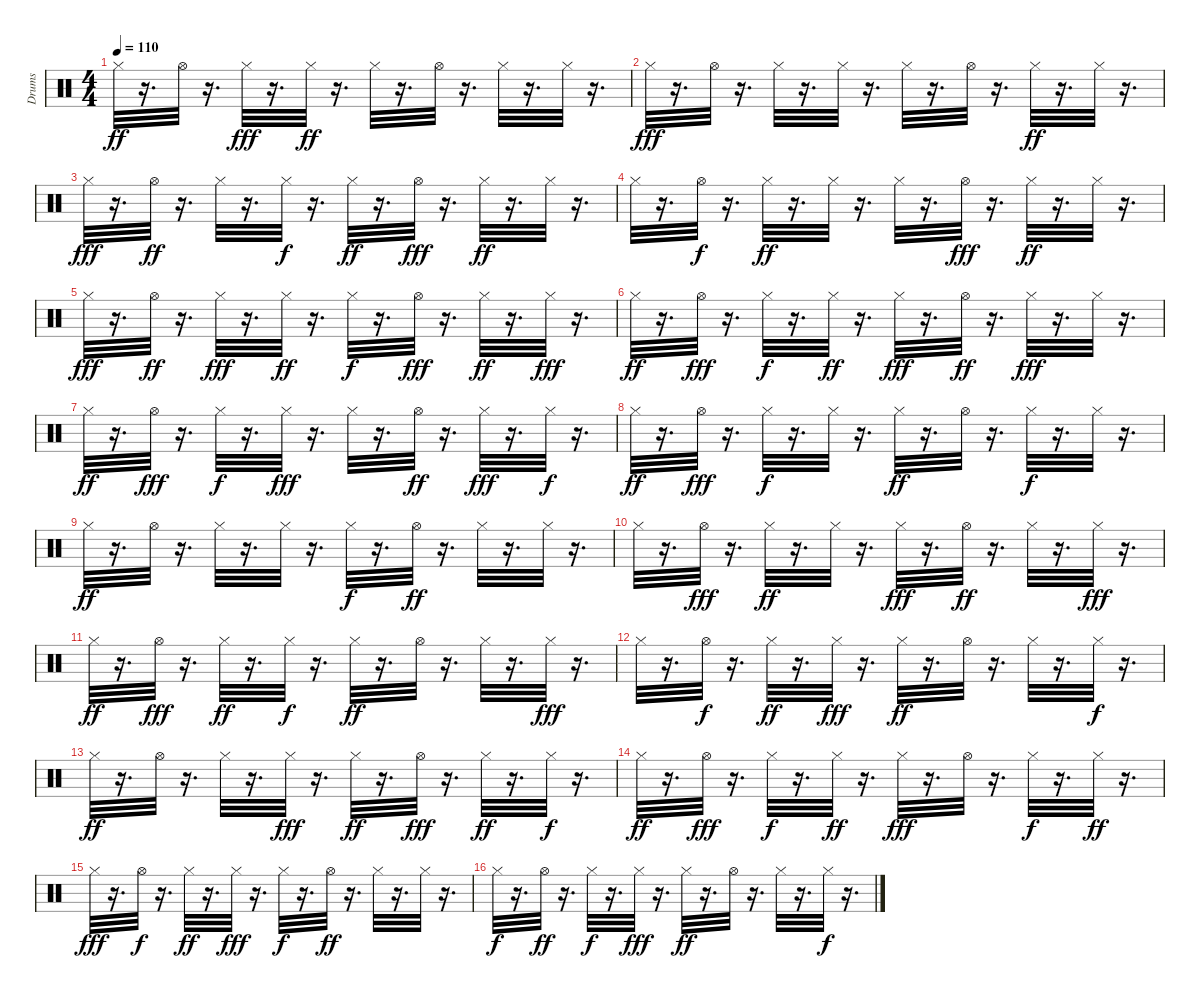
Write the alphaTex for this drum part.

\track ("Drums" "Drums") {instrument percussion}
\staff {score}
\articulation defaults
\ts (4 4)
\tempo 110
\clef neutral
\ks c "Hi-Hat (closed)".32{dy ff}
r.16{d} "Hi-Hat (open)".32 r.16{d} "Hi-Hat (closed)".32{dy fff} r.16{d} "Hi-Hat (closed)".32{dy ff} r.16{d} "Hi-Hat (closed)".32 r.16{d} "Hi-Hat (open)".32 r.16{d} "Hi-Hat (closed)".32 r.16{d} "Hi-Hat (closed)".32 r.16{d} |
"Hi-Hat (closed)".32{dy fff} r.16{d} "Hi-Hat (open)".32 r.16{d} "Hi-Hat (closed)".32 r.16{d} "Hi-Hat (closed)".32 r.16{d} "Hi-Hat (closed)".32 r.16{d} "Hi-Hat (open)".32 r.16{d} "Hi-Hat (closed)".32{dy ff} r.16{d} "Hi-Hat (closed)".32 r.16{d} |
"Hi-Hat (closed)".32{dy fff} r.16{d} "Hi-Hat (open)".32{dy ff} r.16{d} "Hi-Hat (closed)".32 r.16{d} "Hi-Hat (closed)".32{dy f} r.16{d} "Hi-Hat (closed)".32{dy ff} r.16{d} "Hi-Hat (open)".32{dy fff} r.16{d} "Hi-Hat (closed)".32{dy ff} r.16{d} "Hi-Hat (closed)".32 r.16{d} |
"Hi-Hat (closed)".32 r.16{d} "Hi-Hat (open)".32{dy f} r.16{d} "Hi-Hat (closed)".32{dy ff} r.16{d} "Hi-Hat (closed)".32 r.16{d} "Hi-Hat (closed)".32 r.16{d} "Hi-Hat (open)".32{dy fff} r.16{d} "Hi-Hat (closed)".32{dy ff} r.16{d} "Hi-Hat (closed)".32 r.16{d} |
"Hi-Hat (closed)".32{dy fff} r.16{d} "Hi-Hat (open)".32{dy ff} r.16{d} "Hi-Hat (closed)".32{dy fff} r.16{d} "Hi-Hat (closed)".32{dy ff} r.16{d} "Hi-Hat (closed)".32{dy f} r.16{d} "Hi-Hat (open)".32{dy fff} r.16{d} "Hi-Hat (closed)".32{dy ff} r.16{d} "Hi-Hat (closed)".32{dy fff} r.16{d} |
"Hi-Hat (closed)".32{dy ff} r.16{d} "Hi-Hat (open)".32{dy fff} r.16{d} "Hi-Hat (closed)".32{dy f} r.16{d} "Hi-Hat (closed)".32{dy ff} r.16{d} "Hi-Hat (closed)".32{dy fff} r.16{d} "Hi-Hat (open)".32{dy ff} r.16{d} "Hi-Hat (closed)".32{dy fff} r.16{d} "Hi-Hat (closed)".32 r.16{d} |
"Hi-Hat (closed)".32{dy ff} r.16{d} "Hi-Hat (open)".32{dy fff} r.16{d} "Hi-Hat (closed)".32{dy f} r.16{d} "Hi-Hat (closed)".32{dy fff} r.16{d} "Hi-Hat (closed)".32 r.16{d} "Hi-Hat (open)".32{dy ff} r.16{d} "Hi-Hat (closed)".32{dy fff} r.16{d} "Hi-Hat (closed)".32{dy f} r.16{d} |
"Hi-Hat (closed)".32{dy ff} r.16{d} "Hi-Hat (open)".32{dy fff} r.16{d} "Hi-Hat (closed)".32{dy f} r.16{d} "Hi-Hat (closed)".32 r.16{d} "Hi-Hat (closed)".32{dy ff} r.16{d} "Hi-Hat (open)".32 r.16{d} "Hi-Hat (closed)".32{dy f} r.16{d} "Hi-Hat (closed)".32 r.16{d} |
"Hi-Hat (closed)".32{dy ff} r.16{d} "Hi-Hat (open)".32 r.16{d} "Hi-Hat (closed)".32 r.16{d} "Hi-Hat (closed)".32 r.16{d} "Hi-Hat (closed)".32{dy f} r.16{d} "Hi-Hat (open)".32{dy ff} r.16{d} "Hi-Hat (closed)".32 r.16{d} "Hi-Hat (closed)".32 r.16{d} |
"Hi-Hat (closed)".32 r.16{d} "Hi-Hat (open)".32{dy fff} r.16{d} "Hi-Hat (closed)".32{dy ff} r.16{d} "Hi-Hat (closed)".32 r.16{d} "Hi-Hat (closed)".32{dy fff} r.16{d} "Hi-Hat (open)".32{dy ff} r.16{d} "Hi-Hat (closed)".32 r.16{d} "Hi-Hat (closed)".32{dy fff} r.16{d} |
"Hi-Hat (closed)".32{dy ff} r.16{d} "Hi-Hat (open)".32{dy fff} r.16{d} "Hi-Hat (closed)".32{dy ff} r.16{d} "Hi-Hat (closed)".32{dy f} r.16{d} "Hi-Hat (closed)".32{dy ff} r.16{d} "Hi-Hat (open)".32 r.16{d} "Hi-Hat (closed)".32 r.16{d} "Hi-Hat (closed)".32{dy fff} r.16{d} |
"Hi-Hat (closed)".32 r.16{d} "Hi-Hat (open)".32{dy f} r.16{d} "Hi-Hat (closed)".32{dy ff} r.16{d} "Hi-Hat (closed)".32{dy fff} r.16{d} "Hi-Hat (closed)".32{dy ff} r.16{d} "Hi-Hat (open)".32 r.16{d} "Hi-Hat (closed)".32 r.16{d} "Hi-Hat (closed)".32{dy f} r.16{d} |
"Hi-Hat (closed)".32{dy ff} r.16{d} "Hi-Hat (open)".32 r.16{d} "Hi-Hat (closed)".32 r.16{d} "Hi-Hat (closed)".32{dy fff} r.16{d} "Hi-Hat (closed)".32{dy ff} r.16{d} "Hi-Hat (open)".32{dy fff} r.16{d} "Hi-Hat (closed)".32{dy ff} r.16{d} "Hi-Hat (closed)".32{dy f} r.16{d} |
"Hi-Hat (closed)".32{dy ff} r.16{d} "Hi-Hat (open)".32{dy fff} r.16{d} "Hi-Hat (closed)".32{dy f} r.16{d} "Hi-Hat (closed)".32{dy ff} r.16{d} "Hi-Hat (closed)".32{dy fff} r.16{d} "Hi-Hat (open)".32 r.16{d} "Hi-Hat (closed)".32{dy f} r.16{d} "Hi-Hat (closed)".32{dy ff} r.16{d} |
"Hi-Hat (closed)".32{dy fff} r.16{d} "Hi-Hat (open)".32{dy f} r.16{d} "Hi-Hat (closed)".32{dy ff} r.16{d} "Hi-Hat (closed)".32{dy fff} r.16{d} "Hi-Hat (closed)".32{dy f} r.16{d} "Hi-Hat (open)".32{dy ff} r.16{d} "Hi-Hat (closed)".32 r.16{d} "Hi-Hat (closed)".32 r.16{d} |
"Hi-Hat (closed)".32{dy f} r.16{d} "Hi-Hat (open)".32{dy ff} r.16{d} "Hi-Hat (closed)".32{dy f} r.16{d} "Hi-Hat (closed)".32{dy fff} r.16{d} "Hi-Hat (closed)".32{dy ff} r.16{d} "Hi-Hat (open)".32 r.16{d} "Hi-Hat (closed)".32 r.16{d} "Hi-Hat (closed)".32{dy f} r.16{d}
